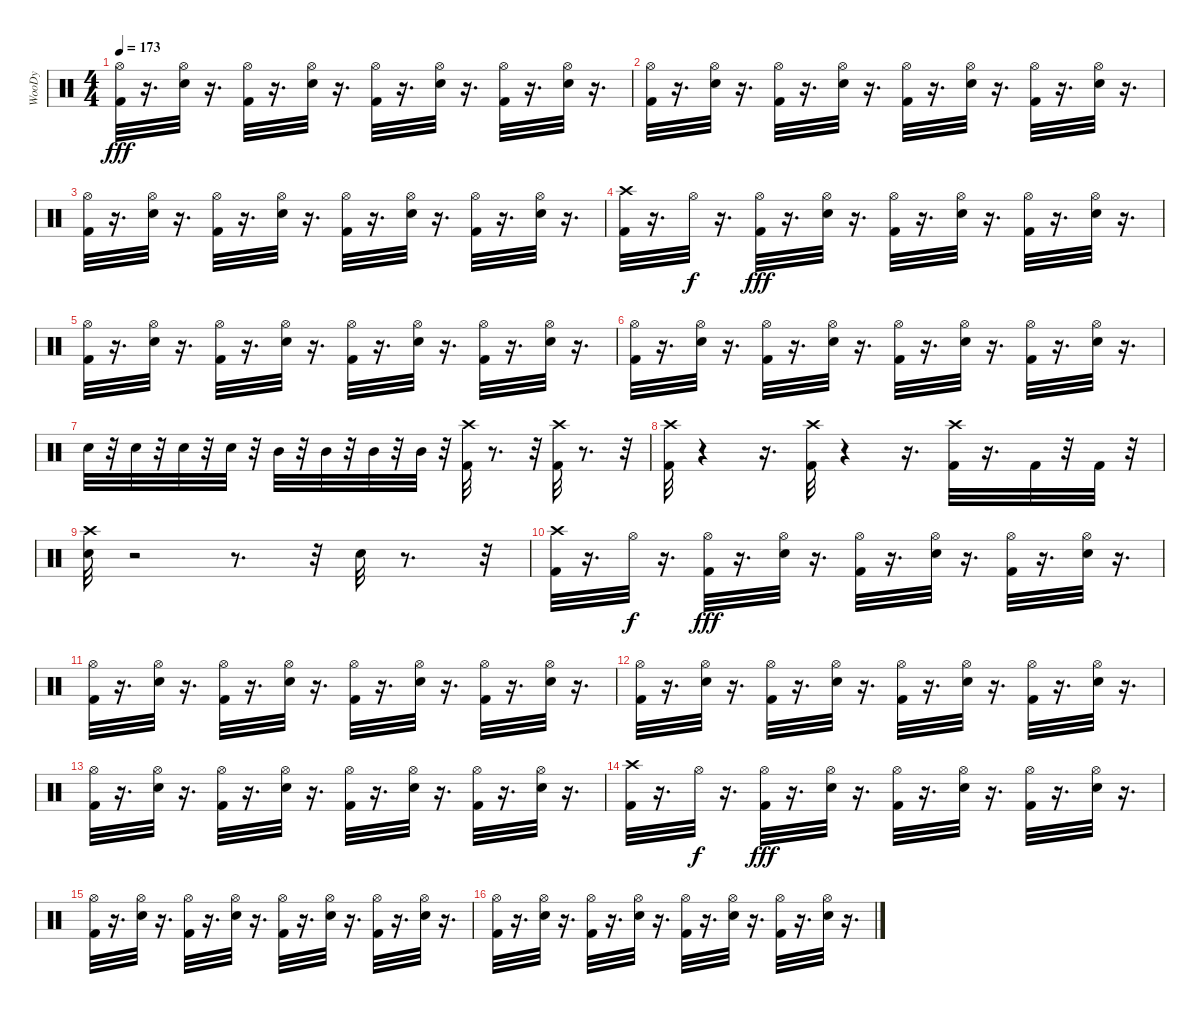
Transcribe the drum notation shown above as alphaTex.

\track ("WooDy" "WooDy") {instrument percussion}
\staff {score}
\articulation defaults
\ts (4 4)
\tempo 173
\clef neutral
\ks c
("Kick (hit) 2" "Hi-Hat (open)").32{dy fff} r.16{d} ("Electric Snare (hit)" "Hi-Hat (open)").32 r.16{d} ("Kick (hit) 2" "Hi-Hat (open)").32 r.16{d} ("Electric Snare (hit)" "Hi-Hat (open)").32 r.16{d} ("Kick (hit) 2" "Hi-Hat (open)").32 r.16{d} ("Electric Snare (hit)" "Hi-Hat (open)").32 r.16{d} ("Kick (hit) 2" "Hi-Hat (open)").32 r.16{d} ("Electric Snare (hit)" "Hi-Hat (open)").32 r.16{d} |
("Kick (hit) 2" "Hi-Hat (open)").32 r.16{d} ("Electric Snare (hit)" "Hi-Hat (open)").32 r.16{d} ("Kick (hit) 2" "Hi-Hat (open)").32 r.16{d} ("Electric Snare (hit)" "Hi-Hat (open)").32 r.16{d} ("Kick (hit) 2" "Hi-Hat (open)").32 r.16{d} ("Electric Snare (hit)" "Hi-Hat (open)").32 r.16{d} ("Kick (hit) 2" "Hi-Hat (open)").32 r.16{d} ("Electric Snare (hit)" "Hi-Hat (open)").32 r.16{d} |
("Kick (hit) 2" "Hi-Hat (open)").32 r.16{d} ("Electric Snare (hit)" "Hi-Hat (open)").32 r.16{d} ("Kick (hit) 2" "Hi-Hat (open)").32 r.16{d} ("Electric Snare (hit)" "Hi-Hat (open)").32 r.16{d} ("Kick (hit) 2" "Hi-Hat (open)").32 r.16{d} ("Electric Snare (hit)" "Hi-Hat (open)").32 r.16{d} ("Kick (hit) 2" "Hi-Hat (open)").32 r.16{d} ("Electric Snare (hit)" "Hi-Hat (open)").32 r.16{d} |
("Kick (hit) 2" "Crash high (hit)").32 r.16{d} "Hi-Hat (open)".32{dy f} r.16{d} ("Kick (hit) 2" "Hi-Hat (open)").32{dy fff} r.16{d} ("Electric Snare (hit)" "Hi-Hat (open)").32 r.16{d} ("Kick (hit) 2" "Hi-Hat (open)").32 r.16{d} ("Electric Snare (hit)" "Hi-Hat (open)").32 r.16{d} ("Kick (hit) 2" "Hi-Hat (open)").32 r.16{d} ("Electric Snare (hit)" "Hi-Hat (open)").32 r.16{d} |
("Kick (hit) 2" "Hi-Hat (open)").32 r.16{d} ("Electric Snare (hit)" "Hi-Hat (open)").32 r.16{d} ("Kick (hit) 2" "Hi-Hat (open)").32 r.16{d} ("Electric Snare (hit)" "Hi-Hat (open)").32 r.16{d} ("Kick (hit) 2" "Hi-Hat (open)").32 r.16{d} ("Electric Snare (hit)" "Hi-Hat (open)").32 r.16{d} ("Kick (hit) 2" "Hi-Hat (open)").32 r.16{d} ("Electric Snare (hit)" "Hi-Hat (open)").32 r.16{d} |
("Kick (hit) 2" "Hi-Hat (open)").32 r.16{d} ("Electric Snare (hit)" "Hi-Hat (open)").32 r.16{d} ("Kick (hit) 2" "Hi-Hat (open)").32 r.16{d} ("Electric Snare (hit)" "Hi-Hat (open)").32 r.16{d} ("Kick (hit) 2" "Hi-Hat (open)").32 r.16{d} ("Electric Snare (hit)" "Hi-Hat (open)").32 r.16{d} ("Kick (hit) 2" "Hi-Hat (open)").32 r.16{d} ("Electric Snare (hit)" "Hi-Hat (open)").32 r.16{d} |
"Electric Snare (hit)".32 r.32 "Electric Snare (hit)".32 r.32 "Electric Snare (hit)".32 r.32 "Electric Snare (hit)".32 r.32 "Mid Tom (hit)".32 r.32 "Mid Tom (hit)".32 r.32 "Mid Tom (hit)".32 r.32 "Mid Tom (hit)".32 r.32 ("Kick (hit) 2" "Crash high (hit)").32 r.8{d} r.32 ("Kick (hit) 2" "Crash high (hit)").32 r.8{d} r.32 |
("Kick (hit) 2" "Crash high (hit)").32 r.4 r.16{d} ("Kick (hit) 2" "Crash high (hit)").32 r.4 r.16{d} ("Kick (hit) 2" "Crash high (hit)").32 r.16{d} "Kick (hit) 2".32 r.32 "Kick (hit) 2".32 r.32 |
("Electric Snare (hit)" "Crash high (hit)").32 r.2 r.8{d} r.32 "Electric Snare (hit)".32 r.8{d} r.32 |
("Kick (hit) 2" "Crash high (hit)").32 r.16{d} "Hi-Hat (open)".32{dy f} r.16{d} ("Kick (hit) 2" "Hi-Hat (open)").32{dy fff} r.16{d} ("Electric Snare (hit)" "Hi-Hat (open)").32 r.16{d} ("Kick (hit) 2" "Hi-Hat (open)").32 r.16{d} ("Electric Snare (hit)" "Hi-Hat (open)").32 r.16{d} ("Kick (hit) 2" "Hi-Hat (open)").32 r.16{d} ("Electric Snare (hit)" "Hi-Hat (open)").32 r.16{d} |
("Kick (hit) 2" "Hi-Hat (open)").32 r.16{d} ("Electric Snare (hit)" "Hi-Hat (open)").32 r.16{d} ("Kick (hit) 2" "Hi-Hat (open)").32 r.16{d} ("Electric Snare (hit)" "Hi-Hat (open)").32 r.16{d} ("Kick (hit) 2" "Hi-Hat (open)").32 r.16{d} ("Electric Snare (hit)" "Hi-Hat (open)").32 r.16{d} ("Kick (hit) 2" "Hi-Hat (open)").32 r.16{d} ("Electric Snare (hit)" "Hi-Hat (open)").32 r.16{d} |
("Kick (hit) 2" "Hi-Hat (open)").32 r.16{d} ("Electric Snare (hit)" "Hi-Hat (open)").32 r.16{d} ("Kick (hit) 2" "Hi-Hat (open)").32 r.16{d} ("Electric Snare (hit)" "Hi-Hat (open)").32 r.16{d} ("Kick (hit) 2" "Hi-Hat (open)").32 r.16{d} ("Electric Snare (hit)" "Hi-Hat (open)").32 r.16{d} ("Kick (hit) 2" "Hi-Hat (open)").32 r.16{d} ("Electric Snare (hit)" "Hi-Hat (open)").32 r.16{d} |
("Kick (hit) 2" "Hi-Hat (open)").32 r.16{d} ("Electric Snare (hit)" "Hi-Hat (open)").32 r.16{d} ("Kick (hit) 2" "Hi-Hat (open)").32 r.16{d} ("Electric Snare (hit)" "Hi-Hat (open)").32 r.16{d} ("Kick (hit) 2" "Hi-Hat (open)").32 r.16{d} ("Electric Snare (hit)" "Hi-Hat (open)").32 r.16{d} ("Kick (hit) 2" "Hi-Hat (open)").32 r.16{d} ("Electric Snare (hit)" "Hi-Hat (open)").32 r.16{d} |
("Kick (hit) 2" "Crash high (hit)").32 r.16{d} "Hi-Hat (open)".32{dy f} r.16{d} ("Kick (hit) 2" "Hi-Hat (open)").32{dy fff} r.16{d} ("Electric Snare (hit)" "Hi-Hat (open)").32 r.16{d} ("Kick (hit) 2" "Hi-Hat (open)").32 r.16{d} ("Electric Snare (hit)" "Hi-Hat (open)").32 r.16{d} ("Kick (hit) 2" "Hi-Hat (open)").32 r.16{d} ("Electric Snare (hit)" "Hi-Hat (open)").32 r.16{d} |
("Kick (hit) 2" "Hi-Hat (open)").32 r.16{d} ("Electric Snare (hit)" "Hi-Hat (open)").32 r.16{d} ("Kick (hit) 2" "Hi-Hat (open)").32 r.16{d} ("Electric Snare (hit)" "Hi-Hat (open)").32 r.16{d} ("Kick (hit) 2" "Hi-Hat (open)").32 r.16{d} ("Electric Snare (hit)" "Hi-Hat (open)").32 r.16{d} ("Kick (hit) 2" "Hi-Hat (open)").32 r.16{d} ("Electric Snare (hit)" "Hi-Hat (open)").32 r.16{d} |
("Kick (hit) 2" "Hi-Hat (open)").32 r.16{d} ("Electric Snare (hit)" "Hi-Hat (open)").32 r.16{d} ("Kick (hit) 2" "Hi-Hat (open)").32 r.16{d} ("Electric Snare (hit)" "Hi-Hat (open)").32 r.16{d} ("Kick (hit) 2" "Hi-Hat (open)").32 r.16{d} ("Electric Snare (hit)" "Hi-Hat (open)").32 r.16{d} ("Kick (hit) 2" "Hi-Hat (open)").32 r.16{d} ("Electric Snare (hit)" "Hi-Hat (open)").32 r.16{d}
